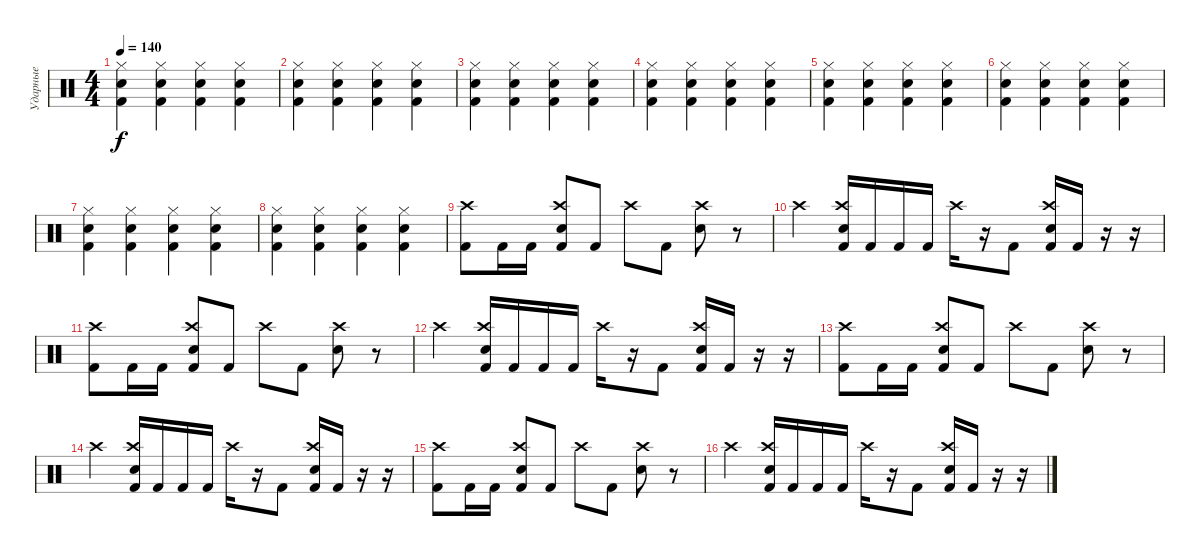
\track ("Ударные" "Ударные") {instrument percussion}
\staff {score}
\articulation defaults
\ts (4 4)
\tempo 140
\clef neutral
\ks c
("Hi-Hat (closed)" "Hand Clap (hit)" "Kick (hit) 2").4{dy f} ("Hi-Hat (closed)" "Hand Clap (hit)" "Kick (hit) 2").4 ("Hi-Hat (closed)" "Hand Clap (hit)" "Kick (hit) 2").4 ("Hi-Hat (closed)" "Hand Clap (hit)" "Kick (hit) 2").4 |
("Hi-Hat (closed)" "Hand Clap (hit)" "Kick (hit) 2").4 ("Hi-Hat (closed)" "Hand Clap (hit)" "Kick (hit) 2").4 ("Hi-Hat (closed)" "Hand Clap (hit)" "Kick (hit) 2").4 ("Hi-Hat (closed)" "Hand Clap (hit)" "Kick (hit) 2").4 |
("Hi-Hat (closed)" "Hand Clap (hit)" "Kick (hit) 2").4 ("Hi-Hat (closed)" "Hand Clap (hit)" "Kick (hit) 2").4 ("Hi-Hat (closed)" "Hand Clap (hit)" "Kick (hit) 2").4 ("Hi-Hat (closed)" "Hand Clap (hit)" "Kick (hit) 2").4 |
("Hi-Hat (closed)" "Hand Clap (hit)" "Kick (hit) 2").4 ("Hi-Hat (closed)" "Hand Clap (hit)" "Kick (hit) 2").4 ("Hi-Hat (closed)" "Hand Clap (hit)" "Kick (hit) 2").4 ("Hi-Hat (closed)" "Hand Clap (hit)" "Kick (hit) 2").4 |
("Hi-Hat (closed)" "Hand Clap (hit)" "Kick (hit) 2").4 ("Hi-Hat (closed)" "Hand Clap (hit)" "Kick (hit) 2").4 ("Hi-Hat (closed)" "Hand Clap (hit)" "Kick (hit) 2").4 ("Hi-Hat (closed)" "Hand Clap (hit)" "Kick (hit) 2").4 |
("Hi-Hat (closed)" "Hand Clap (hit)" "Kick (hit) 2").4 ("Hi-Hat (closed)" "Hand Clap (hit)" "Kick (hit) 2").4 ("Hi-Hat (closed)" "Hand Clap (hit)" "Kick (hit) 2").4 ("Hi-Hat (closed)" "Hand Clap (hit)" "Kick (hit) 2").4 |
("Hi-Hat (closed)" "Hand Clap (hit)" "Kick (hit) 2").4 ("Hi-Hat (closed)" "Hand Clap (hit)" "Kick (hit) 2").4 ("Hi-Hat (closed)" "Hand Clap (hit)" "Kick (hit) 2").4 ("Hi-Hat (closed)" "Hand Clap (hit)" "Kick (hit) 2").4 |
("Hi-Hat (closed)" "Hand Clap (hit)" "Kick (hit) 2").4 ("Hi-Hat (closed)" "Hand Clap (hit)" "Kick (hit) 2").4 ("Hi-Hat (closed)" "Hand Clap (hit)" "Kick (hit) 2").4 ("Hi-Hat (closed)" "Hand Clap (hit)" "Kick (hit) 2").4 |
("Crash high (hit)" "Kick (hit) 2").8 "Kick (hit) 2".16 "Kick (hit) 2".16 ("Crash high (hit)" "Electric Snare (hit)" "Kick (hit) 2").8 "Kick (hit) 2".8 "Crash high (hit)".8 "Kick (hit) 2".8 ("Crash high (hit)" "Electric Snare (hit)").8 r.8 |
"Crash high (hit)".4 ("Crash high (hit)" "Electric Snare (hit)" "Kick (hit) 2").16 "Kick (hit) 2".16 "Kick (hit) 2".16 "Kick (hit) 2".16 "Crash high (hit)".16 r.16 "Kick (hit) 2".8 ("Crash high (hit)" "Electric Snare (hit)" "Kick (hit) 2").16 "Kick (hit) 2".16 r.16 r.16 |
("Crash high (hit)" "Kick (hit) 2").8 "Kick (hit) 2".16 "Kick (hit) 2".16 ("Crash high (hit)" "Electric Snare (hit)" "Kick (hit) 2").8 "Kick (hit) 2".8 "Crash high (hit)".8 "Kick (hit) 2".8 ("Crash high (hit)" "Electric Snare (hit)").8 r.8 |
"Crash high (hit)".4 ("Crash high (hit)" "Electric Snare (hit)" "Kick (hit) 2").16 "Kick (hit) 2".16 "Kick (hit) 2".16 "Kick (hit) 2".16 "Crash high (hit)".16 r.16 "Kick (hit) 2".8 ("Crash high (hit)" "Electric Snare (hit)" "Kick (hit) 2").16 "Kick (hit) 2".16 r.16 r.16 |
("Crash high (hit)" "Kick (hit) 2").8 "Kick (hit) 2".16 "Kick (hit) 2".16 ("Crash high (hit)" "Electric Snare (hit)" "Kick (hit) 2").8 "Kick (hit) 2".8 "Crash high (hit)".8 "Kick (hit) 2".8 ("Crash high (hit)" "Electric Snare (hit)").8 r.8 |
"Crash high (hit)".4 ("Crash high (hit)" "Electric Snare (hit)" "Kick (hit) 2").16 "Kick (hit) 2".16 "Kick (hit) 2".16 "Kick (hit) 2".16 "Crash high (hit)".16 r.16 "Kick (hit) 2".8 ("Crash high (hit)" "Electric Snare (hit)" "Kick (hit) 2").16 "Kick (hit) 2".16 r.16 r.16 |
("Crash high (hit)" "Kick (hit) 2").8 "Kick (hit) 2".16 "Kick (hit) 2".16 ("Crash high (hit)" "Electric Snare (hit)" "Kick (hit) 2").8 "Kick (hit) 2".8 "Crash high (hit)".8 "Kick (hit) 2".8 ("Crash high (hit)" "Electric Snare (hit)").8 r.8 |
"Crash high (hit)".4 ("Crash high (hit)" "Electric Snare (hit)" "Kick (hit) 2").16 "Kick (hit) 2".16 "Kick (hit) 2".16 "Kick (hit) 2".16 "Crash high (hit)".16 r.16 "Kick (hit) 2".8 ("Crash high (hit)" "Electric Snare (hit)" "Kick (hit) 2").16 "Kick (hit) 2".16 r.16 r.16
